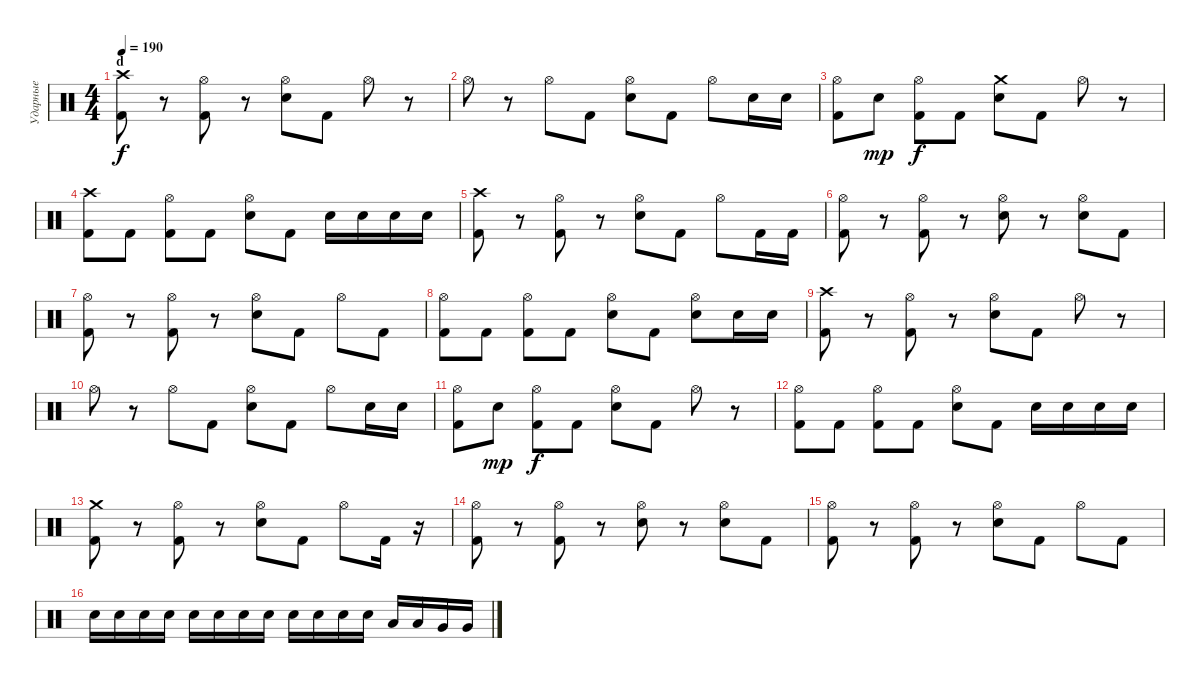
\track ("Ударные" "Ударные") {instrument percussion}
\staff {score}
\articulation defaults
\ts (4 4)
\section ("" "d")
\tempo 190
\clef neutral
\ks c
("Crash high (hit)" "Kick (hit) 2").8{dy f} r.8 ("Hi-Hat (open)" "Kick (hit) 2").8 r.8 ("Hi-Hat (open)" "Snare (hit) 2").8 "Kick (hit) 2".8 "Hi-Hat (open)".8 r.8 |
"Hi-Hat (open)".8 r.8 "Hi-Hat (open)".8 "Kick (hit) 2".8 ("Hi-Hat (open)" "Snare (hit) 2").8 "Kick (hit) 2".8 "Hi-Hat (open)".8 "Snare (hit) 2".16 "Snare (hit) 2".16 |
("Hi-Hat (open)" "Kick (hit) 2").8 "Snare (hit) 2".8{dy mp} ("Hi-Hat (open)" "Kick (hit) 2").8{dy f} "Kick (hit) 2".8 ("Crash medium (hit)" "Snare (hit) 2").8 "Kick (hit) 2".8 "Hi-Hat (open)".8 r.8 |
("Crash high (hit)" "Kick (hit) 2").8 "Kick (hit) 2".8 ("Hi-Hat (open)" "Kick (hit) 2").8 "Kick (hit) 2".8 ("Hi-Hat (open)" "Snare (hit) 2").8 "Kick (hit) 2".8 "Snare (hit) 2".16 "Snare (hit) 2".16 "Snare (hit) 2".16 "Snare (hit) 2".16 |
("Crash high (hit)" "Kick (hit) 2").8 r.8 ("Hi-Hat (open)" "Kick (hit) 2").8 r.8 ("Hi-Hat (open)" "Snare (hit) 2").8 "Kick (hit) 2".8 "Hi-Hat (open)".8 "Kick (hit) 2".16 "Kick (hit) 2".16 |
("Hi-Hat (open)" "Kick (hit) 2").8 r.8 ("Hi-Hat (open)" "Kick (hit) 2").8 r.8 ("Hi-Hat (open)" "Snare (hit) 2").8 r.8 ("Hi-Hat (open)" "Snare (hit) 2").8 "Kick (hit) 2".8 |
("Hi-Hat (open)" "Kick (hit) 2").8 r.8 ("Hi-Hat (open)" "Kick (hit) 2").8 r.8 ("Hi-Hat (open)" "Snare (hit) 2").8 "Kick (hit) 2".8 "Hi-Hat (open)".8 "Kick (hit) 2".8 |
("Hi-Hat (open)" "Kick (hit) 2").8 "Kick (hit) 2".8 ("Hi-Hat (open)" "Kick (hit) 2").8 "Kick (hit) 2".8 ("Hi-Hat (open)" "Snare (hit) 2").8 "Kick (hit) 2".8 ("Hi-Hat (open)" "Snare (hit) 2").8 "Snare (hit) 2".16 "Snare (hit) 2".16 |
("Crash high (hit)" "Kick (hit) 2").8 r.8 ("Hi-Hat (open)" "Kick (hit) 2").8 r.8 ("Hi-Hat (open)" "Snare (hit) 2").8 "Kick (hit) 2".8 "Hi-Hat (open)".8 r.8 |
"Hi-Hat (open)".8 r.8 "Hi-Hat (open)".8 "Kick (hit) 2".8 ("Hi-Hat (open)" "Snare (hit) 2").8 "Kick (hit) 2".8 "Hi-Hat (open)".8 "Snare (hit) 2".16 "Snare (hit) 2".16 |
("Hi-Hat (open)" "Kick (hit) 2").8 "Snare (hit) 2".8{dy mp} ("Hi-Hat (open)" "Kick (hit) 2").8{dy f} "Kick (hit) 2".8 ("Hi-Hat (open)" "Snare (hit) 2").8 "Kick (hit) 2".8 "Hi-Hat (open)".8 r.8 |
("Hi-Hat (open)" "Kick (hit) 2").8 "Kick (hit) 2".8 ("Hi-Hat (open)" "Kick (hit) 2").8 "Kick (hit) 2".8 ("Hi-Hat (open)" "Snare (hit) 2").8 "Kick (hit) 2".8 "Snare (hit) 2".16 "Snare (hit) 2".16 "Snare (hit) 2".16 "Snare (hit) 2".16 |
("Crash medium (hit)" "Kick (hit) 2").8 r.8 ("Hi-Hat (open)" "Kick (hit) 2").8 r.8 ("Hi-Hat (open)" "Snare (hit) 2").8 "Kick (hit) 2".8 "Hi-Hat (open)".8 "Kick (hit) 2".16 r.16 |
("Hi-Hat (open)" "Kick (hit) 2").8 r.8 ("Hi-Hat (open)" "Kick (hit) 2").8 r.8 ("Hi-Hat (open)" "Snare (hit) 2").8 r.8 ("Hi-Hat (open)" "Snare (hit) 2").8 "Kick (hit) 2".8 |
("Hi-Hat (open)" "Kick (hit) 2").8 r.8 ("Hi-Hat (open)" "Kick (hit) 2").8 r.8 ("Hi-Hat (open)" "Snare (hit) 2").8 "Kick (hit) 2".8 "Hi-Hat (open)".8 "Kick (hit) 2".8 |
"Snare (hit) 2".16 "Snare (hit) 2".16 "Snare (hit) 2".16 "Snare (hit) 2".16 "Snare (hit) 2".16 "Snare (hit) 2".16 "Snare (hit) 2".16 "Snare (hit) 2".16 "Snare (hit) 2".16 "Snare (hit) 2".16 "Snare (hit) 2".16 "Snare (hit) 2".16 "Low Tom (hit)".16 "Low Tom (hit)".16 "Very Low Tom (hit)".16 "Very Low Tom (hit)".16
